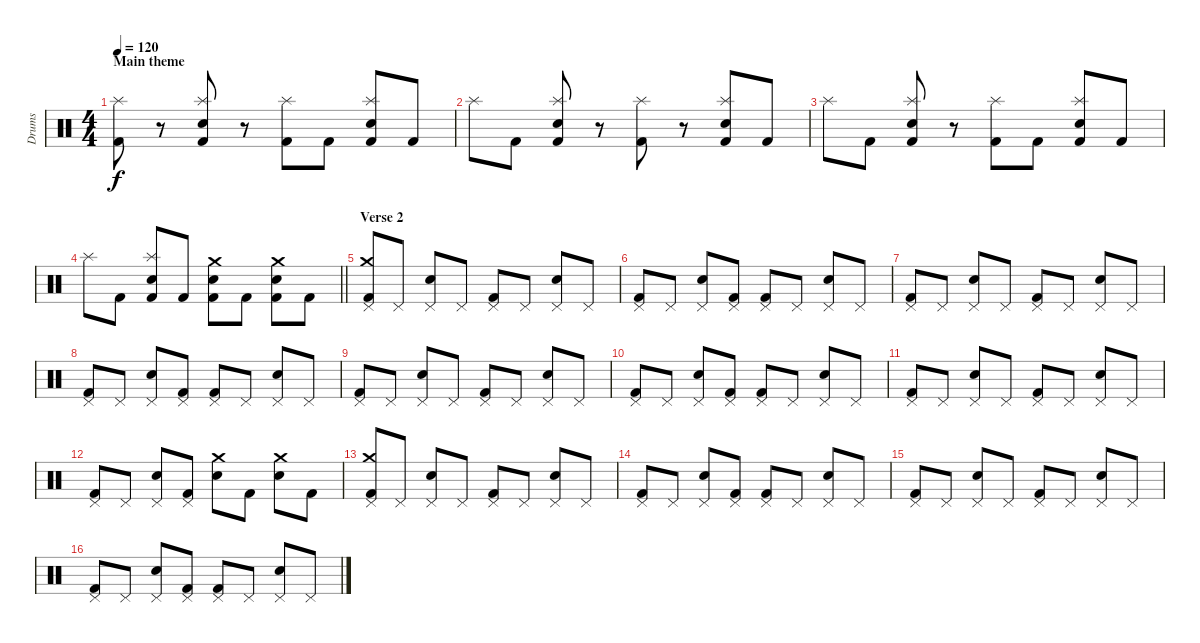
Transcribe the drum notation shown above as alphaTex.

\track ("Drums" "Drums") {instrument percussion}
\staff {score}
\articulation defaults
\ts (4 4)
\section ("" "Main theme")
\tempo 120
\clef neutral
\ks c
("Kick (hit) 2" "Splash (hit)").8{dy f} r.8 ("Splash (hit)" "Snare (hit) 2" "Kick (hit) 2").8 r.8 ("Splash (hit)" "Kick (hit) 2").8 "Kick (hit) 2".8 ("Splash (hit)" "Kick (hit) 2" "Snare (hit) 2").8 "Kick (hit) 2".8 |
"Splash (hit)".8 "Kick (hit) 2".8 ("Splash (hit)" "Snare (hit) 2" "Kick (hit) 2").8 r.8 ("Kick (hit) 2" "Splash (hit)").8 r.8 ("Splash (hit)" "Kick (hit) 2" "Snare (hit) 2").8 "Kick (hit) 2".8 |
"Splash (hit)".8 "Kick (hit) 2".8 ("Splash (hit)" "Snare (hit) 2" "Kick (hit) 2").8 r.8 ("Kick (hit) 2" "Splash (hit)").8 "Kick (hit) 2".8 ("Splash (hit)" "Kick (hit) 2" "Snare (hit) 2").8 "Kick (hit) 2".8 |
\barLineRight lightlight "Splash (hit)".8 "Kick (hit) 2".8
("Kick (hit) 2" "Snare (hit) 2" "Splash (hit)").8 "Kick (hit) 2".8 ("Snare (hit) 2" "Kick (hit) 2" "Crash medium (hit)").8 "Kick (hit) 2".8 ("Snare (hit) 2" "Kick (hit) 2" "Crash medium (hit)").8 "Kick (hit) 2".8 |
\section ("" "Verse 2")
("Kick (hit) 2" "Pedal Hi-Hat (hit)" "Crash medium (hit)").8 "Pedal Hi-Hat (hit)".8 ("Snare (hit) 2" "Pedal Hi-Hat (hit)").8 "Pedal Hi-Hat (hit)".8 ("Kick (hit) 2" "Pedal Hi-Hat (hit)").8 "Pedal Hi-Hat (hit)".8 ("Snare (hit) 2" "Pedal Hi-Hat (hit)").8 "Pedal Hi-Hat (hit)".8 |
("Kick (hit) 2" "Pedal Hi-Hat (hit)").8 "Pedal Hi-Hat (hit)".8 ("Snare (hit) 2" "Pedal Hi-Hat (hit)").8 ("Kick (hit) 2" "Pedal Hi-Hat (hit)").8 ("Kick (hit) 2" "Pedal Hi-Hat (hit)").8 "Pedal Hi-Hat (hit)".8 ("Snare (hit) 2" "Pedal Hi-Hat (hit)").8 "Pedal Hi-Hat (hit)".8 |
("Kick (hit) 2" "Pedal Hi-Hat (hit)").8 "Pedal Hi-Hat (hit)".8 ("Snare (hit) 2" "Pedal Hi-Hat (hit)").8 "Pedal Hi-Hat (hit)".8 ("Kick (hit) 2" "Pedal Hi-Hat (hit)").8 "Pedal Hi-Hat (hit)".8 ("Snare (hit) 2" "Pedal Hi-Hat (hit)").8 "Pedal Hi-Hat (hit)".8 |
("Kick (hit) 2" "Pedal Hi-Hat (hit)").8 "Pedal Hi-Hat (hit)".8 ("Snare (hit) 2" "Pedal Hi-Hat (hit)").8 ("Pedal Hi-Hat (hit)" "Kick (hit) 2").8 ("Kick (hit) 2" "Pedal Hi-Hat (hit)").8 "Pedal Hi-Hat (hit)".8 ("Snare (hit) 2" "Pedal Hi-Hat (hit)").8 "Pedal Hi-Hat (hit)".8 |
("Kick (hit) 2" "Pedal Hi-Hat (hit)").8 "Pedal Hi-Hat (hit)".8 ("Snare (hit) 2" "Pedal Hi-Hat (hit)").8 "Pedal Hi-Hat (hit)".8 ("Kick (hit) 2" "Pedal Hi-Hat (hit)").8 "Pedal Hi-Hat (hit)".8 ("Snare (hit) 2" "Pedal Hi-Hat (hit)").8 "Pedal Hi-Hat (hit)".8 |
("Kick (hit) 2" "Pedal Hi-Hat (hit)").8 "Pedal Hi-Hat (hit)".8 ("Snare (hit) 2" "Pedal Hi-Hat (hit)").8 ("Kick (hit) 2" "Pedal Hi-Hat (hit)").8 ("Kick (hit) 2" "Pedal Hi-Hat (hit)").8 "Pedal Hi-Hat (hit)".8 ("Snare (hit) 2" "Pedal Hi-Hat (hit)").8 "Pedal Hi-Hat (hit)".8 |
("Kick (hit) 2" "Pedal Hi-Hat (hit)").8 "Pedal Hi-Hat (hit)".8 ("Snare (hit) 2" "Pedal Hi-Hat (hit)").8 "Pedal Hi-Hat (hit)".8 ("Kick (hit) 2" "Pedal Hi-Hat (hit)").8 "Pedal Hi-Hat (hit)".8 ("Snare (hit) 2" "Pedal Hi-Hat (hit)").8 "Pedal Hi-Hat (hit)".8 |
("Kick (hit) 2" "Pedal Hi-Hat (hit)").8 "Pedal Hi-Hat (hit)".8 ("Snare (hit) 2" "Pedal Hi-Hat (hit)").8 ("Pedal Hi-Hat (hit)" "Kick (hit) 2").8 ("Crash medium (hit)" "Snare (hit) 2").8 "Kick (hit) 2".8 ("Snare (hit) 2" "Crash medium (hit)").8 "Kick (hit) 2".8 |
("Kick (hit) 2" "Pedal Hi-Hat (hit)" "Crash medium (hit)").8 "Pedal Hi-Hat (hit)".8 ("Snare (hit) 2" "Pedal Hi-Hat (hit)").8 "Pedal Hi-Hat (hit)".8 ("Kick (hit) 2" "Pedal Hi-Hat (hit)").8 "Pedal Hi-Hat (hit)".8 ("Snare (hit) 2" "Pedal Hi-Hat (hit)").8 "Pedal Hi-Hat (hit)".8 |
("Kick (hit) 2" "Pedal Hi-Hat (hit)").8 "Pedal Hi-Hat (hit)".8 ("Snare (hit) 2" "Pedal Hi-Hat (hit)").8 ("Kick (hit) 2" "Pedal Hi-Hat (hit)").8 ("Kick (hit) 2" "Pedal Hi-Hat (hit)").8 "Pedal Hi-Hat (hit)".8 ("Snare (hit) 2" "Pedal Hi-Hat (hit)").8 "Pedal Hi-Hat (hit)".8 |
("Kick (hit) 2" "Pedal Hi-Hat (hit)").8 "Pedal Hi-Hat (hit)".8 ("Snare (hit) 2" "Pedal Hi-Hat (hit)").8 "Pedal Hi-Hat (hit)".8 ("Kick (hit) 2" "Pedal Hi-Hat (hit)").8 "Pedal Hi-Hat (hit)".8 ("Snare (hit) 2" "Pedal Hi-Hat (hit)").8 "Pedal Hi-Hat (hit)".8 |
("Kick (hit) 2" "Pedal Hi-Hat (hit)").8 "Pedal Hi-Hat (hit)".8 ("Snare (hit) 2" "Pedal Hi-Hat (hit)").8 ("Pedal Hi-Hat (hit)" "Kick (hit) 2").8 ("Kick (hit) 2" "Pedal Hi-Hat (hit)").8 "Pedal Hi-Hat (hit)".8 ("Snare (hit) 2" "Pedal Hi-Hat (hit)").8 "Pedal Hi-Hat (hit)".8
